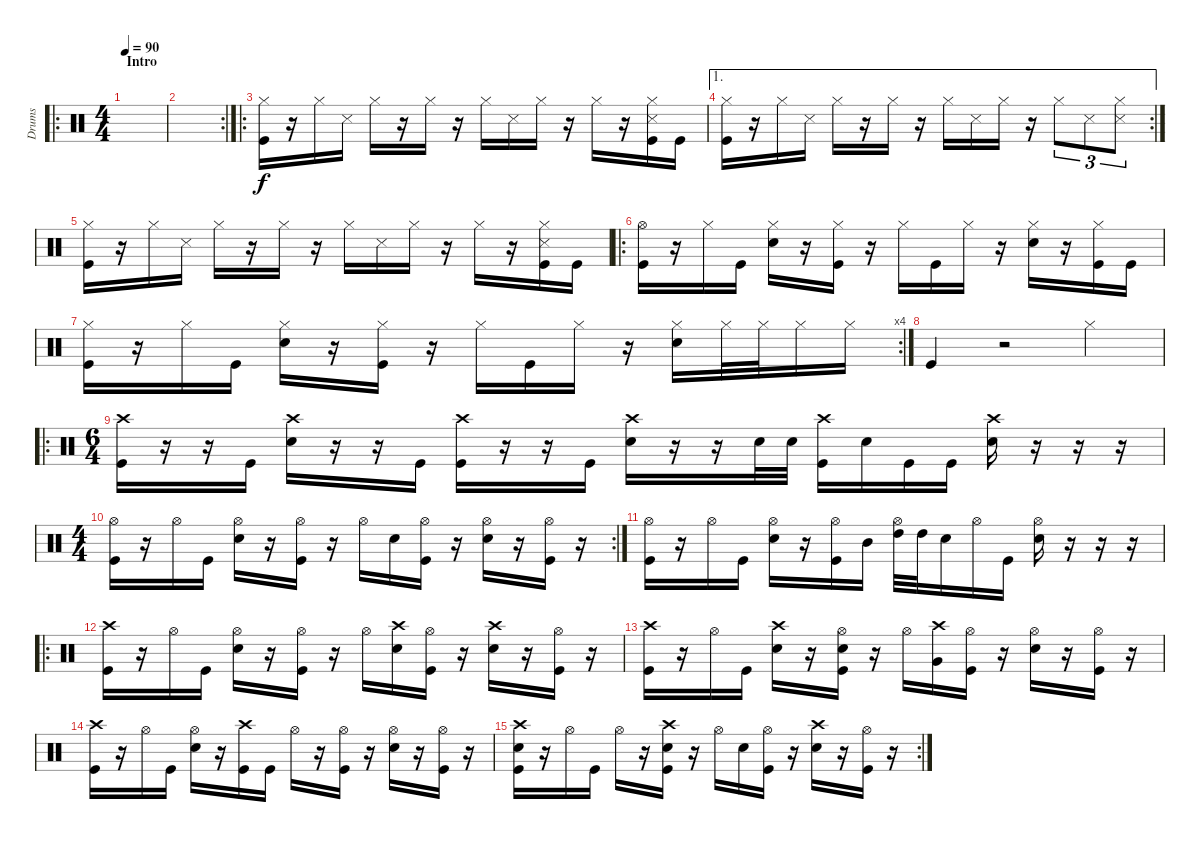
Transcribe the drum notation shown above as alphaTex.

\track ("Drums" "Drums") {instrument percussion}
\staff {score}
\articulation defaults
\ro
\ts (4 4)
\section ("" "Intro")
\tempo 90
\clef neutral
\ks c
|
\rc 2
|
\ro
("Hi-Hat (closed)" "Kick (hit)").16 r.16 "Hi-Hat (closed)".16 "Snare (side stick) 3".16 "Hi-Hat (closed)".16 r.16 "Hi-Hat (closed)".16 r.16 "Hi-Hat (closed)".16 "Snare (side stick) 3".16 "Hi-Hat (closed)".16 r.16 "Hi-Hat (closed)".16 r.16 ("Hi-Hat (closed)" "Snare (side stick) 3" "Kick (hit)").16 "Kick (hit)".16 |
\ae 1
\rc 2
("Hi-Hat (closed)" "Kick (hit)").16 r.16 "Hi-Hat (closed)".16 "Snare (side stick) 3".16 "Hi-Hat (closed)".16 r.16 "Hi-Hat (closed)".16 r.16 "Hi-Hat (closed)".16 "Snare (side stick) 3".16 "Hi-Hat (closed)".16 r.16 "Hi-Hat (closed)".8{tu (3 2)} "Snare (side stick) 3".8{tu (3 2)} ("Hi-Hat (closed)" "Snare (side stick) 3").8{tu (3 2)} |
("Hi-Hat (closed)" "Kick (hit)").16 r.16 "Hi-Hat (closed)".16 "Snare (side stick) 3".16 "Hi-Hat (closed)".16 r.16 "Hi-Hat (closed)".16 r.16 "Hi-Hat (closed)".16 "Snare (side stick) 3".16 "Hi-Hat (closed)".16 r.16 "Hi-Hat (closed)".16 r.16 ("Hi-Hat (closed)" "Snare (side stick) 3" "Kick (hit)").16 "Kick (hit)".16 |
\ro
("Hi-Hat (open)" "Kick (hit)").16 r.16 "Hi-Hat (closed)".16 "Kick (hit)".16 ("Hi-Hat (closed)" "Snare (hit) 2").16 r.16 ("Hi-Hat (closed)" "Kick (hit)").16 r.16 "Hi-Hat (closed)".16 "Kick (hit)".16 "Hi-Hat (closed)".16 r.16 ("Hi-Hat (closed)" "Snare (hit) 2").16 r.16 ("Hi-Hat (closed)" "Kick (hit)").16 "Kick (hit)".16 |
\rc 4
("Hi-Hat (closed)" "Kick (hit)").16 r.16 "Hi-Hat (closed)".16 "Kick (hit)".16 ("Hi-Hat (closed)" "Snare (hit) 2").16 r.16 ("Hi-Hat (closed)" "Kick (hit)").16 r.16 "Hi-Hat (closed)".16 "Kick (hit)".16 "Hi-Hat (closed)".16 r.16 ("Hi-Hat (closed)" "Snare (hit) 2").16 "Hi-Hat (closed)".32 "Hi-Hat (closed)".32 "Hi-Hat (closed)".16 "Hi-Hat (closed)".16 |
"Kick (hit)".4 r.2 "Hi-Hat (closed)".4 |
\ro
\ts (6 4)
("Crash high (hit)" "Kick (hit)").16 r.16 r.16 "Kick (hit)".16 ("Crash high (hit)" "Snare (hit) 2").16 r.16 r.16 "Kick (hit)".16 ("Crash high (hit)" "Kick (hit)").16 r.16 r.16 "Kick (hit)".16 ("Crash high (hit)" "Snare (hit) 2").16 r.16 r.16 "Snare (hit) 2".32 "Snare (hit) 2".32 ("Crash high (hit)" "Kick (hit)").16 "Snare (hit) 2".16 "Kick (hit)".16 "Kick (hit)".16 ("Crash high (hit)" "Snare (hit) 2").16 r.16 r.16 r.16 |
\rc 2
\ts (4 4)
("Hi-Hat (open)" "Kick (hit)").16 r.16 "Hi-Hat (open)".16 "Kick (hit)".16 ("Hi-Hat (open)" "Snare (hit) 2").16 r.16 ("Hi-Hat (open)" "Kick (hit)").16 r.16 "Hi-Hat (open)".16 "Snare (hit) 2".16 ("Hi-Hat (open)" "Kick (hit)").16 r.16 ("Hi-Hat (open)" "Snare (hit) 2").16 r.16 ("Hi-Hat (open)" "Kick (hit)").16 r.16 |
("Hi-Hat (open)" "Kick (hit)").16 r.16 "Hi-Hat (open)".16 "Kick (hit)".16 ("Hi-Hat (open)" "Snare (hit) 2").16 r.16 ("Hi-Hat (open)" "Kick (hit)").16 "Mid Tom (hit)".16 ("Hi-Hat (open)" "High Tom (hit)").32 "High Tom (hit)".32 "Snare (hit) 2".16 "Hi-Hat (open)".16 "Kick (hit)".16 ("Hi-Hat (open)" "Snare (hit) 2").16 r.16 r.16 r.16 |
\ro
("Crash high (hit)" "Kick (hit)").16 r.16 "Hi-Hat (open)".16 "Kick (hit)".16 ("Hi-Hat (open)" "Snare (hit) 2").16 r.16 ("Hi-Hat (open)" "Kick (hit)").16 r.16 "Hi-Hat (open)".16 ("Crash high (hit)" "Snare (hit) 2").16 ("Hi-Hat (open)" "Kick (hit)").16 r.16 ("Crash high (hit)" "Snare (hit) 2").16 r.16 ("Hi-Hat (open)" "Kick (hit)").16 r.16 |
("Crash high (hit)" "Kick (hit)").16 r.16 "Hi-Hat (open)".16 "Kick (hit)".16 ("Crash high (hit)" "Snare (hit) 2").16 r.16 ("Hi-Hat (open)" "Snare (hit) 2" "Kick (hit)").16 r.16 "Hi-Hat (open)".16 ("Crash high (hit)" "Very Low Tom (hit)").16 ("Hi-Hat (open)" "Kick (hit)").16 r.16 ("Hi-Hat (open)" "Snare (hit) 2").16 r.16 ("Hi-Hat (open)" "Kick (hit)").16 r.16 |
("Crash high (hit)" "Kick (hit)").16 r.16 "Hi-Hat (open)".16 "Kick (hit)".16 ("Hi-Hat (open)" "Snare (hit) 2").16 r.16 ("Crash high (hit)" "Kick (hit)").16 "Kick (hit)".16 "Hi-Hat (open)".16 r.16 ("Hi-Hat (open)" "Kick (hit)").16 r.16 ("Hi-Hat (open)" "Snare (hit) 2").16 r.16 ("Hi-Hat (open)" "Kick (hit)").16 r.16 |
\rc 2
("Crash high (hit)" "Snare (hit) 2" "Kick (hit)").16 r.16 "Hi-Hat (open)".16 "Kick (hit)".16 "Hi-Hat (open)".16 r.16 ("Crash high (hit)" "Snare (hit) 2" "Kick (hit)").16 r.16 "Hi-Hat (open)".16 "Snare (hit) 2".16 ("Hi-Hat (open)" "Kick (hit)").16 r.16 ("Crash high (hit)" "Snare (hit) 2").16 r.16 ("Hi-Hat (open)" "Kick (hit)").16 r.16
